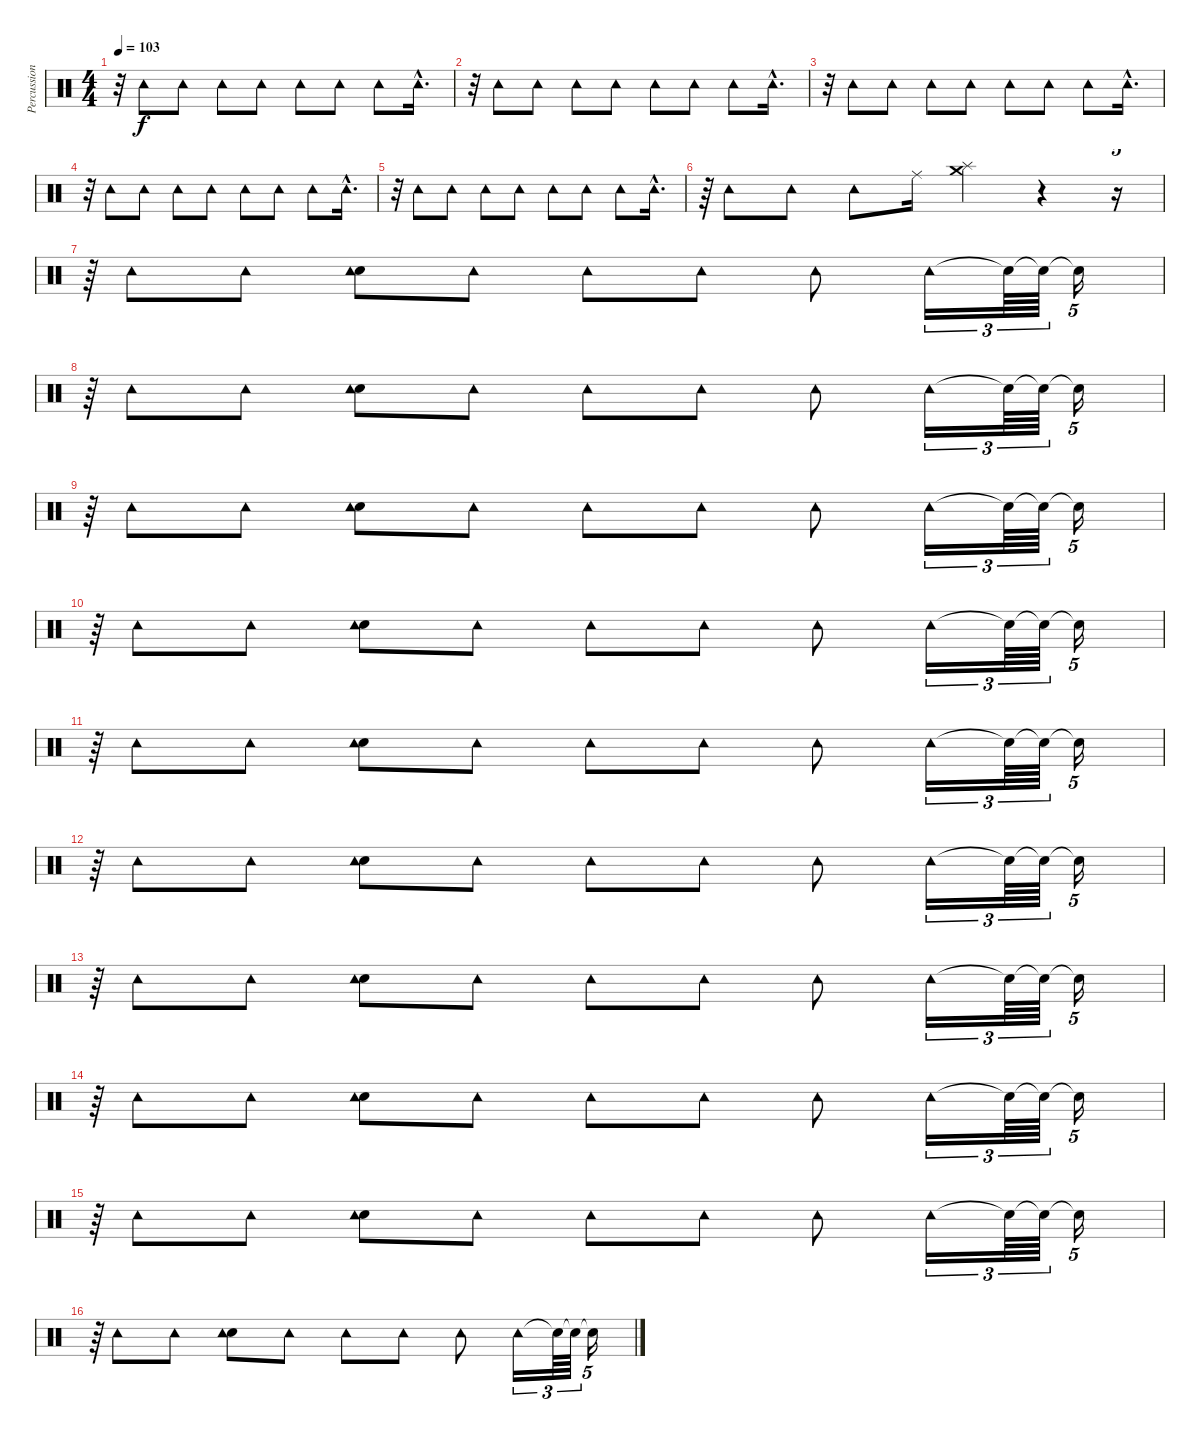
\track ("Percussion" "Percussion") {instrument percussion}
\staff {score}
\articulation defaults
\ts (4 4)
\tempo 103
\clef neutral
\ks c
r.32{dy f} "Tambourine (hit)".8 "Tambourine (hit)".8 "Tambourine (hit)".8 "Tambourine (hit)".8 "Tambourine (hit)".8 "Tambourine (hit)".8 "Tambourine (hit)".8 "Tambourine (hit)"{hac}.16{d} |
r.32 "Tambourine (hit)".8 "Tambourine (hit)".8 "Tambourine (hit)".8 "Tambourine (hit)".8 "Tambourine (hit)".8 "Tambourine (hit)".8 "Tambourine (hit)".8 "Tambourine (hit)"{hac}.16{d} |
r.32 "Tambourine (hit)".8 "Tambourine (hit)".8 "Tambourine (hit)".8 "Tambourine (hit)".8 "Tambourine (hit)".8 "Tambourine (hit)".8 "Tambourine (hit)".8 "Tambourine (hit)"{hac}.16{d} |
r.32 "Tambourine (hit)".8 "Tambourine (hit)".8 "Tambourine (hit)".8 "Tambourine (hit)".8 "Tambourine (hit)".8 "Tambourine (hit)".8 "Tambourine (hit)".8 "Tambourine (hit)"{hac}.16{d} |
r.32 "Tambourine (hit)".8 "Tambourine (hit)".8 "Tambourine (hit)".8 "Tambourine (hit)".8 "Tambourine (hit)".8 "Tambourine (hit)".8 "Tambourine (hit)".8 "Tambourine (hit)"{hac}.16{d} |
r.64{tu (5 4)} "Tambourine (hit)".8 "Tambourine (hit)".8 "Tambourine (hit)".8 "Ride (middle)".16 ("Splash (hit)" "Crash medium (hit)").4 r.4 r.16{tu (5 4)} |
r.64{tu (5 4)} "Tambourine (hit)".8 "Tambourine (hit)".8 ("Electric Snare (hit)" "Tambourine (hit)").8 "Tambourine (hit)".8 "Tambourine (hit)".8 "Tambourine (hit)".8 "Tambourine (hit)".8 "Tambourine (hit)".16{tu (3 2)} "Snare (hit)"{t}.64{tu (3 2)} "Snare (hit)"{t}.64{tu (3 2)} "Snare (hit)"{t}.16{tu (5 4)} |
r.64{tu (5 4)} "Tambourine (hit)".8 "Tambourine (hit)".8 ("Electric Snare (hit)" "Tambourine (hit)").8 "Tambourine (hit)".8 "Tambourine (hit)".8 "Tambourine (hit)".8 "Tambourine (hit)".8 "Tambourine (hit)".16{tu (3 2)} "Snare (hit)"{t}.64{tu (3 2)} "Snare (hit)"{t}.64{tu (3 2)} "Snare (hit)"{t}.16{tu (5 4)} |
r.64{tu (5 4)} "Tambourine (hit)".8 "Tambourine (hit)".8 ("Electric Snare (hit)" "Tambourine (hit)").8 "Tambourine (hit)".8 "Tambourine (hit)".8 "Tambourine (hit)".8 "Tambourine (hit)".8 "Tambourine (hit)".16{tu (3 2)} "Snare (hit)"{t}.64{tu (3 2)} "Snare (hit)"{t}.64{tu (3 2)} "Snare (hit)"{t}.16{tu (5 4)} |
r.64{tu (5 4)} "Tambourine (hit)".8 "Tambourine (hit)".8 ("Electric Snare (hit)" "Tambourine (hit)").8 "Tambourine (hit)".8 "Tambourine (hit)".8 "Tambourine (hit)".8 "Tambourine (hit)".8 "Tambourine (hit)".16{tu (3 2)} "Snare (hit)"{t}.64{tu (3 2)} "Snare (hit)"{t}.64{tu (3 2)} "Snare (hit)"{t}.16{tu (5 4)} |
r.64{tu (5 4)} "Tambourine (hit)".8 "Tambourine (hit)".8 ("Electric Snare (hit)" "Tambourine (hit)").8 "Tambourine (hit)".8 "Tambourine (hit)".8 "Tambourine (hit)".8 "Tambourine (hit)".8 "Tambourine (hit)".16{tu (3 2)} "Snare (hit)"{t}.64{tu (3 2)} "Snare (hit)"{t}.64{tu (3 2)} "Snare (hit)"{t}.16{tu (5 4)} |
r.64{tu (5 4)} "Tambourine (hit)".8 "Tambourine (hit)".8 ("Electric Snare (hit)" "Tambourine (hit)").8 "Tambourine (hit)".8 "Tambourine (hit)".8 "Tambourine (hit)".8 "Tambourine (hit)".8 "Tambourine (hit)".16{tu (3 2)} "Snare (hit)"{t}.64{tu (3 2)} "Snare (hit)"{t}.64{tu (3 2)} "Snare (hit)"{t}.16{tu (5 4)} |
r.64{tu (5 4)} "Tambourine (hit)".8 "Tambourine (hit)".8 ("Electric Snare (hit)" "Tambourine (hit)").8 "Tambourine (hit)".8 "Tambourine (hit)".8 "Tambourine (hit)".8 "Tambourine (hit)".8 "Tambourine (hit)".16{tu (3 2)} "Snare (hit)"{t}.64{tu (3 2)} "Snare (hit)"{t}.64{tu (3 2)} "Snare (hit)"{t}.16{tu (5 4)} |
r.64{tu (5 4)} "Tambourine (hit)".8 "Tambourine (hit)".8 ("Electric Snare (hit)" "Tambourine (hit)").8 "Tambourine (hit)".8 "Tambourine (hit)".8 "Tambourine (hit)".8 "Tambourine (hit)".8 "Tambourine (hit)".16{tu (3 2)} "Snare (hit)"{t}.64{tu (3 2)} "Snare (hit)"{t}.64{tu (3 2)} "Snare (hit)"{t}.16{tu (5 4)} |
r.64{tu (5 4)} "Tambourine (hit)".8 "Tambourine (hit)".8 ("Electric Snare (hit)" "Tambourine (hit)").8 "Tambourine (hit)".8 "Tambourine (hit)".8 "Tambourine (hit)".8 "Tambourine (hit)".8 "Tambourine (hit)".16{tu (3 2)} "Snare (hit)"{t}.64{tu (3 2)} "Snare (hit)"{t}.64{tu (3 2)} "Snare (hit)"{t}.16{tu (5 4)} |
r.64{tu (5 4)} "Tambourine (hit)".8 "Tambourine (hit)".8 ("Electric Snare (hit)" "Tambourine (hit)").8 "Tambourine (hit)".8 "Tambourine (hit)".8 "Tambourine (hit)".8 "Tambourine (hit)".8 "Tambourine (hit)".16{tu (3 2)} "Snare (hit)"{t}.64{tu (3 2)} "Snare (hit)"{t}.64{tu (3 2)} "Snare (hit)"{t}.16{tu (5 4)}
